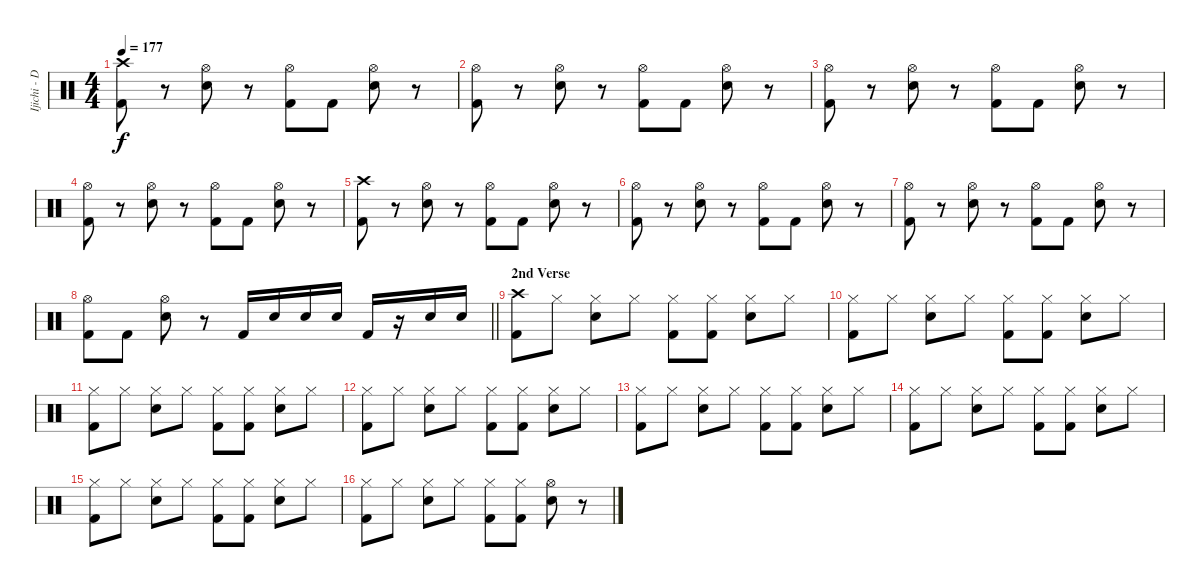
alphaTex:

\track ("Ijichi - Drums" "Ijichi - D") {instrument percussion}
\staff {score}
\articulation defaults
\ts (4 4)
\tempo 177
\clef neutral
\ks c
("Crash high (hit)" "Kick (hit) 2").8{dy f} r.8 ("Hi-Hat (open)" "Snare (hit) 2").8 r.8 ("Hi-Hat (open)" "Kick (hit) 2").8 "Kick (hit) 2".8 ("Hi-Hat (open)" "Snare (hit) 2").8 r.8 |
("Hi-Hat (open)" "Kick (hit) 2").8 r.8 ("Hi-Hat (open)" "Snare (hit) 2").8 r.8 ("Hi-Hat (open)" "Kick (hit) 2").8 "Kick (hit) 2".8 ("Hi-Hat (open)" "Snare (hit) 2").8 r.8 |
("Hi-Hat (open)" "Kick (hit) 2").8 r.8 ("Hi-Hat (open)" "Snare (hit) 2").8 r.8 ("Hi-Hat (open)" "Kick (hit) 2").8 "Kick (hit) 2".8 ("Hi-Hat (open)" "Snare (hit) 2").8 r.8 |
("Hi-Hat (open)" "Kick (hit) 2").8 r.8 ("Hi-Hat (open)" "Snare (hit) 2").8 r.8 ("Hi-Hat (open)" "Kick (hit) 2").8 "Kick (hit) 2".8 ("Hi-Hat (open)" "Snare (hit) 2").8 r.8 |
("Crash high (hit)" "Kick (hit) 2").8 r.8 ("Hi-Hat (open)" "Snare (hit) 2").8 r.8 ("Hi-Hat (open)" "Kick (hit) 2").8 "Kick (hit) 2".8 ("Hi-Hat (open)" "Snare (hit) 2").8 r.8 |
("Hi-Hat (open)" "Kick (hit) 2").8 r.8 ("Hi-Hat (open)" "Snare (hit) 2").8 r.8 ("Hi-Hat (open)" "Kick (hit) 2").8 "Kick (hit) 2".8 ("Hi-Hat (open)" "Snare (hit) 2").8 r.8 |
("Hi-Hat (open)" "Kick (hit) 2").8 r.8 ("Hi-Hat (open)" "Snare (hit) 2").8 r.8 ("Hi-Hat (open)" "Kick (hit) 2").8 "Kick (hit) 2".8 ("Hi-Hat (open)" "Snare (hit) 2").8 r.8 |
\barLineRight lightlight
("Hi-Hat (open)" "Kick (hit) 2").8 "Kick (hit) 2".8 ("Hi-Hat (open)" "Snare (hit) 2").8 r.8 "Kick (hit) 2".16 "Snare (hit) 2".16 "Snare (hit) 2".16 "Snare (hit) 2".16 "Kick (hit) 2".16 r.16 "Snare (hit) 2".16 "Snare (hit) 2".16 |
\section ("" "2nd Verse")
("Crash high (hit)" "Kick (hit) 2").8 "Hi-Hat (closed)".8 ("Hi-Hat (closed)" "Snare (hit) 2").8 "Hi-Hat (closed)".8 ("Hi-Hat (closed)" "Kick (hit) 2").8 ("Hi-Hat (closed)" "Kick (hit) 2").8 ("Hi-Hat (closed)" "Snare (hit) 2").8 "Hi-Hat (closed)".8 |
("Hi-Hat (closed)" "Kick (hit) 2").8 "Hi-Hat (closed)".8 ("Hi-Hat (closed)" "Snare (hit) 2").8 "Hi-Hat (closed)".8 ("Hi-Hat (closed)" "Kick (hit) 2").8 ("Hi-Hat (closed)" "Kick (hit) 2").8 ("Hi-Hat (closed)" "Snare (hit) 2").8 "Hi-Hat (closed)".8 |
("Hi-Hat (closed)" "Kick (hit) 2").8 "Hi-Hat (closed)".8 ("Hi-Hat (closed)" "Snare (hit) 2").8 "Hi-Hat (closed)".8 ("Hi-Hat (closed)" "Kick (hit) 2").8 ("Hi-Hat (closed)" "Kick (hit) 2").8 ("Hi-Hat (closed)" "Snare (hit) 2").8 "Hi-Hat (closed)".8 |
("Hi-Hat (closed)" "Kick (hit) 2").8 "Hi-Hat (closed)".8 ("Hi-Hat (closed)" "Snare (hit) 2").8 "Hi-Hat (closed)".8 ("Hi-Hat (closed)" "Kick (hit) 2").8 ("Hi-Hat (closed)" "Kick (hit) 2").8 ("Hi-Hat (closed)" "Snare (hit) 2").8 "Hi-Hat (closed)".8 |
("Hi-Hat (closed)" "Kick (hit) 2").8 "Hi-Hat (closed)".8 ("Hi-Hat (closed)" "Snare (hit) 2").8 "Hi-Hat (closed)".8 ("Hi-Hat (closed)" "Kick (hit) 2").8 ("Hi-Hat (closed)" "Kick (hit) 2").8 ("Hi-Hat (closed)" "Snare (hit) 2").8 "Hi-Hat (closed)".8 |
("Hi-Hat (closed)" "Kick (hit) 2").8 "Hi-Hat (closed)".8 ("Hi-Hat (closed)" "Snare (hit) 2").8 "Hi-Hat (closed)".8 ("Hi-Hat (closed)" "Kick (hit) 2").8 ("Hi-Hat (closed)" "Kick (hit) 2").8 ("Hi-Hat (closed)" "Snare (hit) 2").8 "Hi-Hat (closed)".8 |
("Hi-Hat (closed)" "Kick (hit) 2").8 "Hi-Hat (closed)".8 ("Hi-Hat (closed)" "Snare (hit) 2").8 "Hi-Hat (closed)".8 ("Hi-Hat (closed)" "Kick (hit) 2").8 ("Hi-Hat (closed)" "Kick (hit) 2").8 ("Hi-Hat (closed)" "Snare (hit) 2").8 "Hi-Hat (closed)".8 |
("Hi-Hat (closed)" "Kick (hit) 2").8 "Hi-Hat (closed)".8 ("Hi-Hat (closed)" "Snare (hit) 2").8 "Hi-Hat (closed)".8 ("Hi-Hat (closed)" "Kick (hit) 2").8 ("Hi-Hat (closed)" "Kick (hit) 2").8 ("Hi-Hat (open)" "Snare (hit) 2").8 r.8
